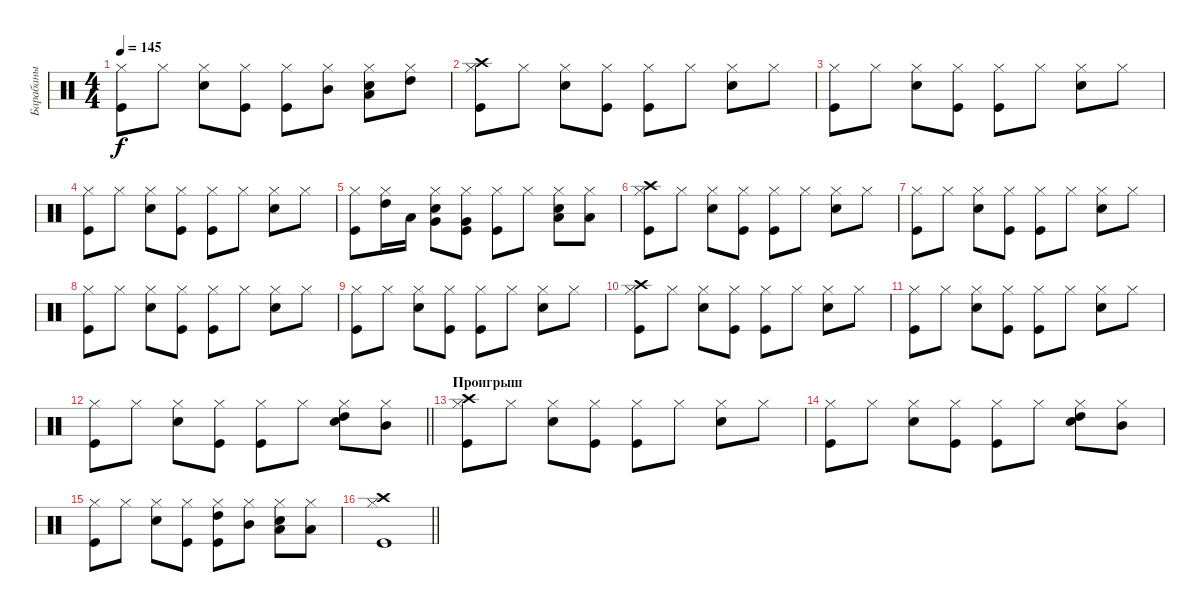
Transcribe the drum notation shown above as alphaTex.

\track ("Барабаны" "Барабаны") {instrument percussion}
\staff {score}
\articulation defaults
\ts (4 4)
\tempo 145
\clef neutral
\ks c
("Kick (hit)" "Hi-Hat (closed)").8{dy f} "Hi-Hat (closed)".8 ("Snare (hit) 2" "Hi-Hat (closed)").8 ("Kick (hit)" "Hi-Hat (closed)").8 ("Kick (hit)" "Hi-Hat (closed)").8 ("Hi-Hat (closed)" "Mid Tom (hit)").8 ("Snare (hit) 2" "Hi-Hat (closed)" "Low Tom (hit)").8 ("Hi-Hat (closed)" "High Tom (hit)").8 |
("Kick (hit)" "Hi-Hat (closed)" "Crash high (hit)").8 "Hi-Hat (closed)".8 ("Snare (hit) 2" "Hi-Hat (closed)").8 ("Kick (hit)" "Hi-Hat (closed)").8 ("Kick (hit)" "Hi-Hat (closed)").8 "Hi-Hat (closed)".8 ("Snare (hit) 2" "Hi-Hat (closed)").8 "Hi-Hat (closed)".8 |
("Kick (hit)" "Hi-Hat (closed)").8 "Hi-Hat (closed)".8 ("Snare (hit) 2" "Hi-Hat (closed)").8 ("Kick (hit)" "Hi-Hat (closed)").8 ("Kick (hit)" "Hi-Hat (closed)").8 "Hi-Hat (closed)".8 ("Snare (hit) 2" "Hi-Hat (closed)").8 "Hi-Hat (closed)".8 |
("Kick (hit)" "Hi-Hat (closed)").8 "Hi-Hat (closed)".8 ("Snare (hit) 2" "Hi-Hat (closed)").8 ("Kick (hit)" "Hi-Hat (closed)").8 ("Kick (hit)" "Hi-Hat (closed)").8 "Hi-Hat (closed)".8 ("Snare (hit) 2" "Hi-Hat (closed)").8 "Hi-Hat (closed)".8 |
("Kick (hit)" "Hi-Hat (closed)").8 ("Hi-Hat (closed)" "High Tom (hit)").16 "Low Tom (hit)".16 ("Snare (hit) 2" "Hi-Hat (closed)" "Very Low Tom (hit)").8 ("Kick (hit)" "Hi-Hat (closed)" "Very Low Tom (hit)").8 ("Kick (hit)" "Hi-Hat (closed)").8 "Hi-Hat (closed)".8 ("Snare (hit) 2" "Hi-Hat (closed)" "Low Tom (hit)").8 ("Hi-Hat (closed)" "Low Tom (hit)").8 |
("Kick (hit)" "Hi-Hat (closed)" "Crash high (hit)").8 "Hi-Hat (closed)".8 ("Snare (hit) 2" "Hi-Hat (closed)").8 ("Kick (hit)" "Hi-Hat (closed)").8 ("Kick (hit)" "Hi-Hat (closed)").8 "Hi-Hat (closed)".8 ("Snare (hit) 2" "Hi-Hat (closed)").8 "Hi-Hat (closed)".8 |
("Kick (hit)" "Hi-Hat (closed)").8 "Hi-Hat (closed)".8 ("Snare (hit) 2" "Hi-Hat (closed)").8 ("Kick (hit)" "Hi-Hat (closed)").8 ("Kick (hit)" "Hi-Hat (closed)").8 "Hi-Hat (closed)".8 ("Snare (hit) 2" "Hi-Hat (closed)").8 "Hi-Hat (closed)".8 |
("Kick (hit)" "Hi-Hat (closed)").8 "Hi-Hat (closed)".8 ("Snare (hit) 2" "Hi-Hat (closed)").8 ("Kick (hit)" "Hi-Hat (closed)").8 ("Kick (hit)" "Hi-Hat (closed)").8 "Hi-Hat (closed)".8 ("Snare (hit) 2" "Hi-Hat (closed)").8 "Hi-Hat (closed)".8 |
("Kick (hit)" "Hi-Hat (closed)").8 "Hi-Hat (closed)".8 ("Snare (hit) 2" "Hi-Hat (closed)").8 ("Kick (hit)" "Hi-Hat (closed)").8 ("Kick (hit)" "Hi-Hat (closed)").8 "Hi-Hat (closed)".8 ("Snare (hit) 2" "Hi-Hat (closed)").8 "Hi-Hat (closed)".8 |
("Kick (hit)" "Hi-Hat (closed)" "Crash high (hit)").8 "Hi-Hat (closed)".8 ("Snare (hit) 2" "Hi-Hat (closed)").8 ("Kick (hit)" "Hi-Hat (closed)").8 ("Kick (hit)" "Hi-Hat (closed)").8 "Hi-Hat (closed)".8 ("Snare (hit) 2" "Hi-Hat (closed)").8 "Hi-Hat (closed)".8 |
("Kick (hit)" "Hi-Hat (closed)").8 "Hi-Hat (closed)".8 ("Snare (hit) 2" "Hi-Hat (closed)").8 ("Kick (hit)" "Hi-Hat (closed)").8 ("Kick (hit)" "Hi-Hat (closed)").8 "Hi-Hat (closed)".8 ("Snare (hit) 2" "Hi-Hat (closed)").8 "Hi-Hat (closed)".8 |
\barLineRight lightlight
("Kick (hit)" "Hi-Hat (closed)").8 "Hi-Hat (closed)".8 ("Snare (hit) 2" "Hi-Hat (closed)").8 ("Kick (hit)" "Hi-Hat (closed)").8 ("Kick (hit)" "Hi-Hat (closed)").8 "Hi-Hat (closed)".8 ("Snare (hit) 2" "Hi-Hat (closed)" "High Tom (hit)").8 ("Hi-Hat (closed)" "Mid Tom (hit)").8 |
\section ("" "Проигрыш")
("Kick (hit)" "Hi-Hat (closed)" "Crash high (hit)").8 "Hi-Hat (closed)".8 ("Snare (hit) 2" "Hi-Hat (closed)").8 ("Kick (hit)" "Hi-Hat (closed)").8 ("Kick (hit)" "Hi-Hat (closed)").8 "Hi-Hat (closed)".8 ("Snare (hit) 2" "Hi-Hat (closed)").8 "Hi-Hat (closed)".8 |
("Kick (hit)" "Hi-Hat (closed)").8 "Hi-Hat (closed)".8 ("Snare (hit) 2" "Hi-Hat (closed)").8 ("Kick (hit)" "Hi-Hat (closed)").8 ("Kick (hit)" "Hi-Hat (closed)").8 "Hi-Hat (closed)".8 ("Snare (hit) 2" "Hi-Hat (closed)" "High Tom (hit)").8 ("Hi-Hat (closed)" "Mid Tom (hit)").8 |
("Kick (hit)" "Hi-Hat (closed)").8 "Hi-Hat (closed)".8 ("Snare (hit) 2" "Hi-Hat (closed)").8 ("Kick (hit)" "Hi-Hat (closed)").8 ("Kick (hit)" "Hi-Hat (closed)" "High Tom (hit)").8 ("Hi-Hat (closed)" "Mid Tom (hit)").8 ("Snare (hit) 2" "Hi-Hat (closed)" "Low Tom (hit)").8 ("Hi-Hat (closed)" "Low Tom (hit)").8 |
\barLineRight lightlight
("Kick (hit)" "Hi-Hat (closed)" "Crash high (hit)").1
